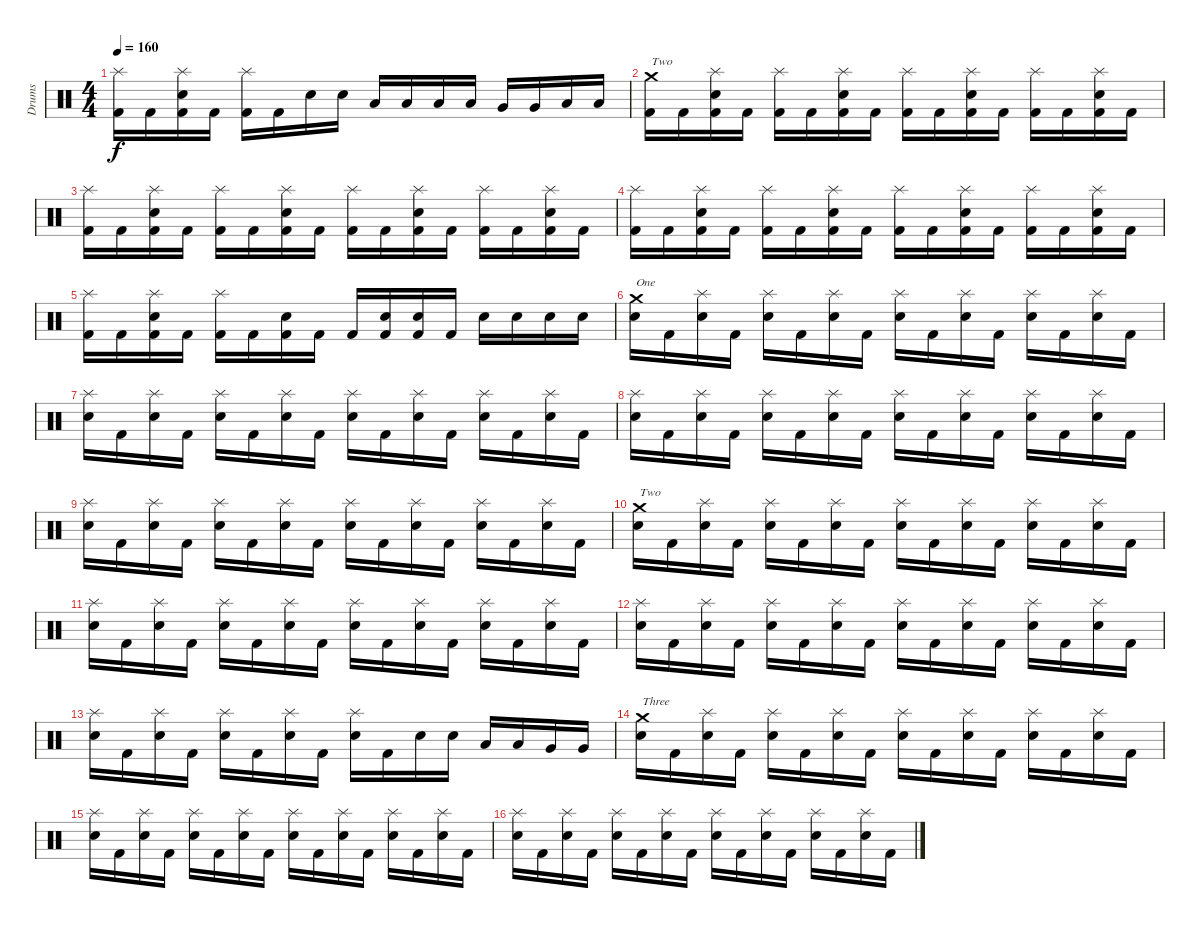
\track ("Drums" "Drums") {instrument percussion}
\staff {score}
\articulation defaults
\ts (4 4)
\tempo 160
\clef neutral
\ks c
("Splash (hit)" "Kick (hit) 2").16{dy f} "Kick (hit) 2".16 ("Splash (hit)" "Snare (hit) 2" "Kick (hit) 2").16 "Kick (hit) 2".16 ("Splash (hit)" "Kick (hit) 2").16 "Kick (hit) 2".16 "Snare (hit) 2".16 "Snare (hit) 2".16 "Low Tom (hit)".16 "Low Tom (hit)".16 "Low Tom (hit)".16 "Low Tom (hit)".16 "Very Low Tom (hit)".16 "Very Low Tom (hit)".16 "Low Floor Tom (hit)".16 "Low Floor Tom (hit)".16 |
("Crash medium (hit)" "Kick (hit) 2").16{txt "Two"} "Kick (hit) 2".16 ("Splash (hit)" "Snare (hit) 2" "Kick (hit) 2").16 "Kick (hit) 2".16 ("Splash (hit)" "Kick (hit) 2").16 "Kick (hit) 2".16 ("Splash (hit)" "Snare (hit) 2" "Kick (hit) 2").16 "Kick (hit) 2".16 ("Splash (hit)" "Kick (hit) 2").16 "Kick (hit) 2".16 ("Splash (hit)" "Snare (hit) 2" "Kick (hit) 2").16 "Kick (hit) 2".16 ("Splash (hit)" "Kick (hit) 2").16 "Kick (hit) 2".16 ("Splash (hit)" "Snare (hit) 2" "Kick (hit) 2").16 "Kick (hit) 2".16 |
("Splash (hit)" "Kick (hit) 2").16 "Kick (hit) 2".16 ("Splash (hit)" "Snare (hit) 2" "Kick (hit) 2").16 "Kick (hit) 2".16 ("Splash (hit)" "Kick (hit) 2").16 "Kick (hit) 2".16 ("Splash (hit)" "Snare (hit) 2" "Kick (hit) 2").16 "Kick (hit) 2".16 ("Splash (hit)" "Kick (hit) 2").16 "Kick (hit) 2".16 ("Splash (hit)" "Snare (hit) 2" "Kick (hit) 2").16 "Kick (hit) 2".16 ("Splash (hit)" "Kick (hit) 2").16 "Kick (hit) 2".16 ("Splash (hit)" "Snare (hit) 2" "Kick (hit) 2").16 "Kick (hit) 2".16 |
("Splash (hit)" "Kick (hit) 2").16 "Kick (hit) 2".16 ("Splash (hit)" "Snare (hit) 2" "Kick (hit) 2").16 "Kick (hit) 2".16 ("Splash (hit)" "Kick (hit) 2").16 "Kick (hit) 2".16 ("Splash (hit)" "Snare (hit) 2" "Kick (hit) 2").16 "Kick (hit) 2".16 ("Splash (hit)" "Kick (hit) 2").16 "Kick (hit) 2".16 ("Splash (hit)" "Snare (hit) 2" "Kick (hit) 2").16 "Kick (hit) 2".16 ("Splash (hit)" "Kick (hit) 2").16 "Kick (hit) 2".16 ("Splash (hit)" "Snare (hit) 2" "Kick (hit) 2").16 "Kick (hit) 2".16 |
("Splash (hit)" "Kick (hit) 2").16 "Kick (hit) 2".16 ("Splash (hit)" "Snare (hit) 2" "Kick (hit) 2").16 "Kick (hit) 2".16 ("Splash (hit)" "Kick (hit) 2").16 "Kick (hit) 2".16 ("Snare (hit) 2" "Kick (hit) 2").16 "Kick (hit) 2".16 "Kick (hit) 2".16 ("Snare (hit) 2" "Kick (hit) 2").16 ("Snare (hit) 2" "Kick (hit) 2").16 "Kick (hit) 2".16 "Snare (hit) 2".16 "Snare (hit) 2".16 "Snare (hit) 2".16 "Snare (hit) 2".16 |
("Crash medium (hit)" "Snare (hit) 2").16{txt "One"} "Kick (hit) 2".16 ("Splash (hit)" "Snare (hit) 2").16 "Kick (hit) 2".16 ("Splash (hit)" "Snare (hit) 2").16 "Kick (hit) 2".16 ("Splash (hit)" "Snare (hit) 2").16 "Kick (hit) 2".16 ("Splash (hit)" "Snare (hit) 2").16 "Kick (hit) 2".16 ("Splash (hit)" "Snare (hit) 2").16 "Kick (hit) 2".16 ("Splash (hit)" "Snare (hit) 2").16 "Kick (hit) 2".16 ("Splash (hit)" "Snare (hit) 2").16 "Kick (hit) 2".16 |
("Splash (hit)" "Snare (hit) 2").16 "Kick (hit) 2".16 ("Splash (hit)" "Snare (hit) 2").16 "Kick (hit) 2".16 ("Splash (hit)" "Snare (hit) 2").16 "Kick (hit) 2".16 ("Splash (hit)" "Snare (hit) 2").16 "Kick (hit) 2".16 ("Splash (hit)" "Snare (hit) 2").16 "Kick (hit) 2".16 ("Splash (hit)" "Snare (hit) 2").16 "Kick (hit) 2".16 ("Splash (hit)" "Snare (hit) 2").16 "Kick (hit) 2".16 ("Splash (hit)" "Snare (hit) 2").16 "Kick (hit) 2".16 |
("Splash (hit)" "Snare (hit) 2").16 "Kick (hit) 2".16 ("Splash (hit)" "Snare (hit) 2").16 "Kick (hit) 2".16 ("Splash (hit)" "Snare (hit) 2").16 "Kick (hit) 2".16 ("Splash (hit)" "Snare (hit) 2").16 "Kick (hit) 2".16 ("Splash (hit)" "Snare (hit) 2").16 "Kick (hit) 2".16 ("Splash (hit)" "Snare (hit) 2").16 "Kick (hit) 2".16 ("Splash (hit)" "Snare (hit) 2").16 "Kick (hit) 2".16 ("Splash (hit)" "Snare (hit) 2").16 "Kick (hit) 2".16 |
("Splash (hit)" "Snare (hit) 2").16 "Kick (hit) 2".16 ("Splash (hit)" "Snare (hit) 2").16 "Kick (hit) 2".16 ("Splash (hit)" "Snare (hit) 2").16 "Kick (hit) 2".16 ("Splash (hit)" "Snare (hit) 2").16 "Kick (hit) 2".16 ("Splash (hit)" "Snare (hit) 2").16 "Kick (hit) 2".16 ("Splash (hit)" "Snare (hit) 2").16 "Kick (hit) 2".16 ("Splash (hit)" "Snare (hit) 2").16 "Kick (hit) 2".16 ("Splash (hit)" "Snare (hit) 2").16 "Kick (hit) 2".16 |
("Crash medium (hit)" "Snare (hit) 2").16{txt "Two"} "Kick (hit) 2".16 ("Splash (hit)" "Snare (hit) 2").16 "Kick (hit) 2".16 ("Splash (hit)" "Snare (hit) 2").16 "Kick (hit) 2".16 ("Splash (hit)" "Snare (hit) 2").16 "Kick (hit) 2".16 ("Splash (hit)" "Snare (hit) 2").16 "Kick (hit) 2".16 ("Splash (hit)" "Snare (hit) 2").16 "Kick (hit) 2".16 ("Splash (hit)" "Snare (hit) 2").16 "Kick (hit) 2".16 ("Splash (hit)" "Snare (hit) 2").16 "Kick (hit) 2".16 |
("Splash (hit)" "Snare (hit) 2").16 "Kick (hit) 2".16 ("Splash (hit)" "Snare (hit) 2").16 "Kick (hit) 2".16 ("Splash (hit)" "Snare (hit) 2").16 "Kick (hit) 2".16 ("Splash (hit)" "Snare (hit) 2").16 "Kick (hit) 2".16 ("Splash (hit)" "Snare (hit) 2").16 "Kick (hit) 2".16 ("Splash (hit)" "Snare (hit) 2").16 "Kick (hit) 2".16 ("Splash (hit)" "Snare (hit) 2").16 "Kick (hit) 2".16 ("Splash (hit)" "Snare (hit) 2").16 "Kick (hit) 2".16 |
("Splash (hit)" "Snare (hit) 2").16 "Kick (hit) 2".16 ("Splash (hit)" "Snare (hit) 2").16 "Kick (hit) 2".16 ("Splash (hit)" "Snare (hit) 2").16 "Kick (hit) 2".16 ("Splash (hit)" "Snare (hit) 2").16 "Kick (hit) 2".16 ("Splash (hit)" "Snare (hit) 2").16 "Kick (hit) 2".16 ("Splash (hit)" "Snare (hit) 2").16 "Kick (hit) 2".16 ("Splash (hit)" "Snare (hit) 2").16 "Kick (hit) 2".16 ("Splash (hit)" "Snare (hit) 2").16 "Kick (hit) 2".16 |
("Splash (hit)" "Snare (hit) 2").16 "Kick (hit) 2".16 ("Splash (hit)" "Snare (hit) 2").16 "Kick (hit) 2".16 ("Splash (hit)" "Snare (hit) 2").16 "Kick (hit) 2".16 ("Splash (hit)" "Snare (hit) 2").16 "Kick (hit) 2".16 ("Splash (hit)" "Snare (hit) 2").16 "Kick (hit) 2".16 "Snare (hit) 2".16 "Snare (hit) 2".16 "Low Tom (hit)".16 "Low Tom (hit)".16 "Very Low Tom (hit)".16 "Very Low Tom (hit)".16 |
("Crash medium (hit)" "Snare (hit) 2").16{txt "Three"} "Kick (hit) 2".16 ("Splash (hit)" "Snare (hit) 2").16 "Kick (hit) 2".16 ("Splash (hit)" "Snare (hit) 2").16 "Kick (hit) 2".16 ("Splash (hit)" "Snare (hit) 2").16 "Kick (hit) 2".16 ("Splash (hit)" "Snare (hit) 2").16 "Kick (hit) 2".16 ("Splash (hit)" "Snare (hit) 2").16 "Kick (hit) 2".16 ("Splash (hit)" "Snare (hit) 2").16 "Kick (hit) 2".16 ("Splash (hit)" "Snare (hit) 2").16 "Kick (hit) 2".16 |
("Splash (hit)" "Snare (hit) 2").16 "Kick (hit) 2".16 ("Splash (hit)" "Snare (hit) 2").16 "Kick (hit) 2".16 ("Splash (hit)" "Snare (hit) 2").16 "Kick (hit) 2".16 ("Splash (hit)" "Snare (hit) 2").16 "Kick (hit) 2".16 ("Splash (hit)" "Snare (hit) 2").16 "Kick (hit) 2".16 ("Splash (hit)" "Snare (hit) 2").16 "Kick (hit) 2".16 ("Splash (hit)" "Snare (hit) 2").16 "Kick (hit) 2".16 ("Splash (hit)" "Snare (hit) 2").16 "Kick (hit) 2".16 |
("Splash (hit)" "Snare (hit) 2").16 "Kick (hit) 2".16 ("Splash (hit)" "Snare (hit) 2").16 "Kick (hit) 2".16 ("Splash (hit)" "Snare (hit) 2").16 "Kick (hit) 2".16 ("Splash (hit)" "Snare (hit) 2").16 "Kick (hit) 2".16 ("Splash (hit)" "Snare (hit) 2").16 "Kick (hit) 2".16 ("Splash (hit)" "Snare (hit) 2").16 "Kick (hit) 2".16 ("Splash (hit)" "Snare (hit) 2").16 "Kick (hit) 2".16 ("Splash (hit)" "Snare (hit) 2").16 "Kick (hit) 2".16
